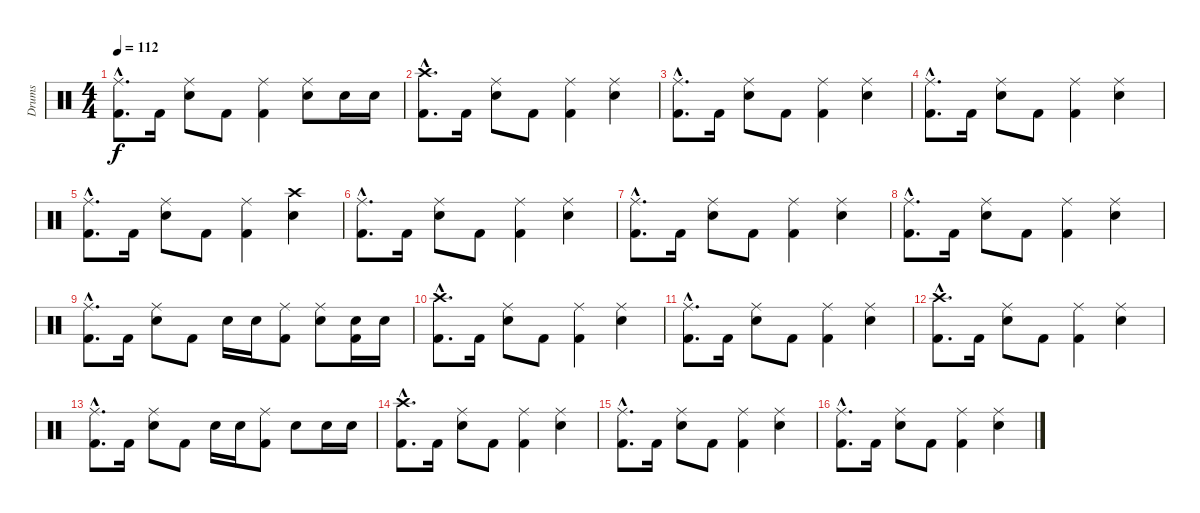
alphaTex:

\track ("Drums" "Drums") {instrument percussion}
\staff {score}
\articulation defaults
\ts (4 4)
\tempo 112
\clef neutral
\ks c
("Ride (middle)"{hac} "Kick (hit) 2"{hac}).8{d dy f} "Kick (hit) 2".16 ("Ride (middle)" "Electric Snare (hit)").8 "Kick (hit) 2".8 ("Ride (middle)" "Kick (hit) 2").4 ("Ride (middle)" "Electric Snare (hit)").8 "Electric Snare (hit)".16 "Electric Snare (hit)".16 |
("Crash high (hit)"{hac} "Kick (hit) 2"{hac}).8{d} "Kick (hit) 2".16 ("Ride (middle)" "Electric Snare (hit)").8 "Kick (hit) 2".8 ("Ride (middle)" "Kick (hit) 2").4 ("Ride (middle)" "Electric Snare (hit)").4 |
("Ride (middle)"{hac} "Kick (hit) 2"{hac}).8{d} "Kick (hit) 2".16 ("Ride (middle)" "Electric Snare (hit)").8 "Kick (hit) 2".8 ("Ride (middle)" "Kick (hit) 2").4 ("Ride (middle)" "Electric Snare (hit)").4 |
("Ride (middle)"{hac} "Kick (hit) 2"{hac}).8{d} "Kick (hit) 2".16 ("Ride (middle)" "Electric Snare (hit)").8 "Kick (hit) 2".8 ("Ride (middle)" "Kick (hit) 2").4 ("Ride (middle)" "Electric Snare (hit)").4 |
("Ride (middle)"{hac} "Kick (hit) 2"{hac}).8{d} "Kick (hit) 2".16 ("Ride (middle)" "Electric Snare (hit)").8 "Kick (hit) 2".8 ("Ride (middle)" "Kick (hit) 2").4 ("Crash high (hit)" "Electric Snare (hit)").4 |
("Ride (middle)"{hac} "Kick (hit) 2"{hac}).8{d} "Kick (hit) 2".16 ("Ride (middle)" "Electric Snare (hit)").8 "Kick (hit) 2".8 ("Ride (middle)" "Kick (hit) 2").4 ("Ride (middle)" "Electric Snare (hit)").4 |
("Ride (middle)"{hac} "Kick (hit) 2"{hac}).8{d} "Kick (hit) 2".16 ("Ride (middle)" "Electric Snare (hit)").8 "Kick (hit) 2".8 ("Ride (middle)" "Kick (hit) 2").4 ("Ride (middle)" "Electric Snare (hit)").4 |
("Ride (middle)"{hac} "Kick (hit) 2"{hac}).8{d} "Kick (hit) 2".16 ("Ride (middle)" "Electric Snare (hit)").8 "Kick (hit) 2".8 ("Ride (middle)" "Kick (hit) 2").4 ("Ride (middle)" "Electric Snare (hit)").4 |
("Ride (middle)"{hac} "Kick (hit) 2"{hac}).8{d} "Kick (hit) 2".16 ("Ride (middle)" "Electric Snare (hit)").8 "Kick (hit) 2".8 "Electric Snare (hit)".16 "Electric Snare (hit)".16 ("Ride (middle)" "Kick (hit) 2").8 ("Ride (middle)" "Electric Snare (hit)").8 ("Electric Snare (hit)" "Kick (hit) 2").16 "Electric Snare (hit)".16 |
("Crash high (hit)"{hac} "Kick (hit) 2"{hac}).8{d} "Kick (hit) 2".16 ("Ride (middle)" "Electric Snare (hit)").8 "Kick (hit) 2".8 ("Ride (middle)" "Kick (hit) 2").4 ("Ride (middle)" "Electric Snare (hit)").4 |
("Ride (middle)"{hac} "Kick (hit) 2"{hac}).8{d} "Kick (hit) 2".16 ("Ride (middle)" "Electric Snare (hit)").8 "Kick (hit) 2".8 ("Ride (middle)" "Kick (hit) 2").4 ("Ride (middle)" "Electric Snare (hit)").4 |
("Crash high (hit)"{hac} "Kick (hit) 2"{hac}).8{d} "Kick (hit) 2".16 ("Ride (middle)" "Electric Snare (hit)").8 "Kick (hit) 2".8 ("Ride (middle)" "Kick (hit) 2").4 ("Ride (middle)" "Electric Snare (hit)").4 |
("Ride (middle)"{hac} "Kick (hit) 2"{hac}).8{d} "Kick (hit) 2".16 ("Ride (middle)" "Electric Snare (hit)").8 "Kick (hit) 2".8 "Electric Snare (hit)".16 "Electric Snare (hit)".16 ("Ride (middle)" "Kick (hit) 2").8 "Electric Snare (hit)".8 "Electric Snare (hit)".16 "Electric Snare (hit)".16 |
("Crash high (hit)"{hac} "Kick (hit) 2"{hac}).8{d} "Kick (hit) 2".16 ("Ride (middle)" "Electric Snare (hit)").8 "Kick (hit) 2".8 ("Ride (middle)" "Kick (hit) 2").4 ("Ride (middle)" "Electric Snare (hit)").4 |
("Ride (middle)"{hac} "Kick (hit) 2"{hac}).8{d} "Kick (hit) 2".16 ("Ride (middle)" "Electric Snare (hit)").8 "Kick (hit) 2".8 ("Ride (middle)" "Kick (hit) 2").4 ("Ride (middle)" "Electric Snare (hit)").4 |
("Ride (middle)"{hac} "Kick (hit) 2"{hac}).8{d} "Kick (hit) 2".16 ("Ride (middle)" "Electric Snare (hit)").8 "Kick (hit) 2".8 ("Ride (middle)" "Kick (hit) 2").4 ("Ride (middle)" "Electric Snare (hit)").4
